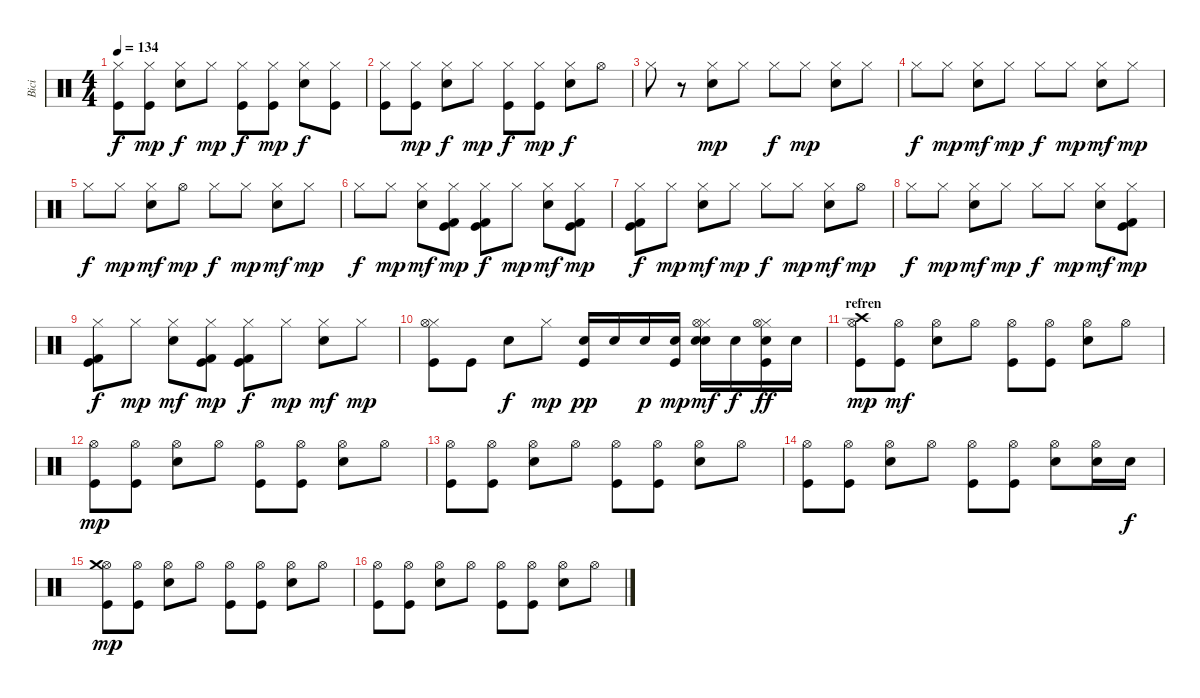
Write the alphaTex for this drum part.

\track ("Bici" "Bici") {instrument percussion}
\staff {score}
\articulation defaults
\ts (4 4)
\tempo 134
\clef neutral
\ks c
("Kick (hit)" "Hi-Hat (closed)").8{dy f} ("Kick (hit)" "Hi-Hat (closed)").8{dy mp} ("Snare (hit) 2" "Hi-Hat (closed)").8{dy f} "Hi-Hat (closed)".8{dy mp} ("Kick (hit)" "Hi-Hat (closed)").8{dy f} ("Kick (hit)" "Hi-Hat (closed)").8{dy mp} ("Snare (hit) 2" "Hi-Hat (closed)").8{dy f} ("Kick (hit)" "Hi-Hat (closed)").8 |
("Kick (hit)" "Hi-Hat (closed)").8 ("Kick (hit)" "Hi-Hat (closed)").8{dy mp} ("Snare (hit) 2" "Hi-Hat (closed)").8{dy f} "Hi-Hat (closed)".8{dy mp} ("Kick (hit)" "Hi-Hat (closed)").8{dy f} ("Kick (hit)" "Hi-Hat (closed)").8{dy mp} ("Snare (hit) 2" "Hi-Hat (closed)").8{dy f} "Hi-Hat (open)".8 |
"Hi-Hat (closed)".8 r.8 ("Snare (hit) 2" "Hi-Hat (closed)").8{dy mp} "Hi-Hat (closed)".8 "Hi-Hat (closed)".8{dy f} "Hi-Hat (closed)".8{dy mp} ("Snare (hit) 2" "Hi-Hat (closed)").8 "Hi-Hat (closed)".8 |
"Hi-Hat (closed)".8{dy f} "Hi-Hat (closed)".8{dy mp} ("Snare (hit) 2" "Hi-Hat (closed)").8{dy mf} "Hi-Hat (closed)".8{dy mp} "Hi-Hat (closed)".8{dy f} "Hi-Hat (closed)".8{dy mp} ("Snare (hit) 2" "Hi-Hat (closed)").8{dy mf} "Hi-Hat (closed)".8{dy mp} |
"Hi-Hat (closed)".8{dy f} "Hi-Hat (closed)".8{dy mp} ("Snare (hit) 2" "Hi-Hat (closed)").8{dy mf} "Hi-Hat (open)".8{dy mp} "Hi-Hat (closed)".8{dy f} "Hi-Hat (closed)".8{dy mp} ("Snare (hit) 2" "Hi-Hat (closed)").8{dy mf} "Hi-Hat (closed)".8{dy mp} |
"Hi-Hat (closed)".8{dy f} "Hi-Hat (closed)".8{dy mp} ("Snare (hit) 2" "Hi-Hat (closed)").8{dy mf} ("Hi-Hat (closed)" "Kick (hit) 2" "Kick (hit)").8{dy mp} ("Hi-Hat (closed)" "Kick (hit) 2" "Kick (hit)").8{dy f} "Hi-Hat (closed)".8{dy mp} ("Snare (hit) 2" "Hi-Hat (closed)").8{dy mf} ("Hi-Hat (closed)" "Kick (hit) 2" "Kick (hit)").8{dy mp} |
("Hi-Hat (closed)" "Kick (hit) 2" "Kick (hit)").8{dy f} "Hi-Hat (closed)".8{dy mp} ("Snare (hit) 2" "Hi-Hat (closed)").8{dy mf} "Hi-Hat (closed)".8{dy mp} "Hi-Hat (closed)".8{dy f} "Hi-Hat (closed)".8{dy mp} ("Snare (hit) 2" "Hi-Hat (closed)").8{dy mf} "Hi-Hat (open)".8{dy mp} |
"Hi-Hat (closed)".8{dy f} "Hi-Hat (closed)".8{dy mp} ("Snare (hit) 2" "Hi-Hat (closed)").8{dy mf} "Hi-Hat (closed)".8{dy mp} "Hi-Hat (closed)".8{dy f} "Hi-Hat (closed)".8{dy mp} ("Snare (hit) 2" "Hi-Hat (closed)").8{dy mf} ("Hi-Hat (closed)" "Kick (hit) 2" "Kick (hit)").8{dy mp} |
("Hi-Hat (closed)" "Kick (hit) 2" "Kick (hit)").8{dy f} "Hi-Hat (closed)".8{dy mp} ("Snare (hit) 2" "Hi-Hat (closed)").8{dy mf} ("Hi-Hat (closed)" "Kick (hit) 2" "Kick (hit)").8{dy mp} ("Hi-Hat (closed)" "Kick (hit) 2" "Kick (hit)").8{dy f} "Hi-Hat (closed)".8{dy mp} ("Snare (hit) 2" "Hi-Hat (closed)").8{dy mf} "Hi-Hat (closed)".8{dy mp} |
("Kick (hit)" "Hi-Hat (closed)" "Hi-Hat (open)").8 "Kick (hit)".8 "Snare (hit) 2".8{dy f} "Hi-Hat (closed)".8{dy mp} ("Kick (hit)" "Snare (hit) 2").16{dy pp} "Snare (hit) 2".16 "Snare (hit) 2".16{dy p} ("Kick (hit)" "Snare (hit) 2").16{dy mp} ("Snare (hit) 2" "Hi-Hat (closed)" "Hi-Hat (open)" "Electric Snare (hit)").16{dy mf} "Electric Snare (hit)".16{dy f} ("Kick (hit)" "Hi-Hat (closed)" "Hi-Hat (open)" "Electric Snare (hit)").16{dy ff} "Electric Snare (hit)".16 |
\section ("" "refren")
("Kick (hit)" "Hi-Hat (open)" "Crash high (hit)").8{dy mp} ("Kick (hit)" "Hi-Hat (open)").8{dy mf} ("Electric Snare (hit)" "Hi-Hat (open)").8 "Hi-Hat (open)".8 ("Kick (hit)" "Hi-Hat (open)").8 ("Kick (hit)" "Hi-Hat (open)").8 ("Electric Snare (hit)" "Hi-Hat (open)").8 "Hi-Hat (open)".8 |
("Kick (hit)" "Hi-Hat (open)").8{dy mp} ("Kick (hit)" "Hi-Hat (open)").8 ("Electric Snare (hit)" "Hi-Hat (open)").8 "Hi-Hat (open)".8 ("Kick (hit)" "Hi-Hat (open)").8 ("Kick (hit)" "Hi-Hat (open)").8 ("Electric Snare (hit)" "Hi-Hat (open)").8 "Hi-Hat (open)".8 |
("Kick (hit)" "Hi-Hat (open)").8 ("Kick (hit)" "Hi-Hat (open)").8 ("Electric Snare (hit)" "Hi-Hat (open)").8 "Hi-Hat (open)".8 ("Kick (hit)" "Hi-Hat (open)").8 ("Kick (hit)" "Hi-Hat (open)").8 ("Electric Snare (hit)" "Hi-Hat (open)").8 "Hi-Hat (open)".8 |
("Kick (hit)" "Hi-Hat (open)").8 ("Kick (hit)" "Hi-Hat (open)").8 ("Electric Snare (hit)" "Hi-Hat (open)").8 "Hi-Hat (open)".8 ("Kick (hit)" "Hi-Hat (open)").8 ("Kick (hit)" "Hi-Hat (open)").8 ("Electric Snare (hit)" "Hi-Hat (open)").8 ("Electric Snare (hit)" "Hi-Hat (open)").16 "Electric Snare (hit)".16{dy f} |
("Kick (hit)" "Hi-Hat (open)" "Crash medium (hit)").8{dy mp} ("Kick (hit)" "Hi-Hat (open)").8 ("Electric Snare (hit)" "Hi-Hat (open)").8 "Hi-Hat (open)".8 ("Kick (hit)" "Hi-Hat (open)").8 ("Kick (hit)" "Hi-Hat (open)").8 ("Electric Snare (hit)" "Hi-Hat (open)").8 "Hi-Hat (open)".8 |
("Kick (hit)" "Hi-Hat (open)").8 ("Kick (hit)" "Hi-Hat (open)").8 ("Electric Snare (hit)" "Hi-Hat (open)").8 "Hi-Hat (open)".8 ("Kick (hit)" "Hi-Hat (open)").8 ("Kick (hit)" "Hi-Hat (open)").8 ("Electric Snare (hit)" "Hi-Hat (open)").8 "Hi-Hat (open)".8
